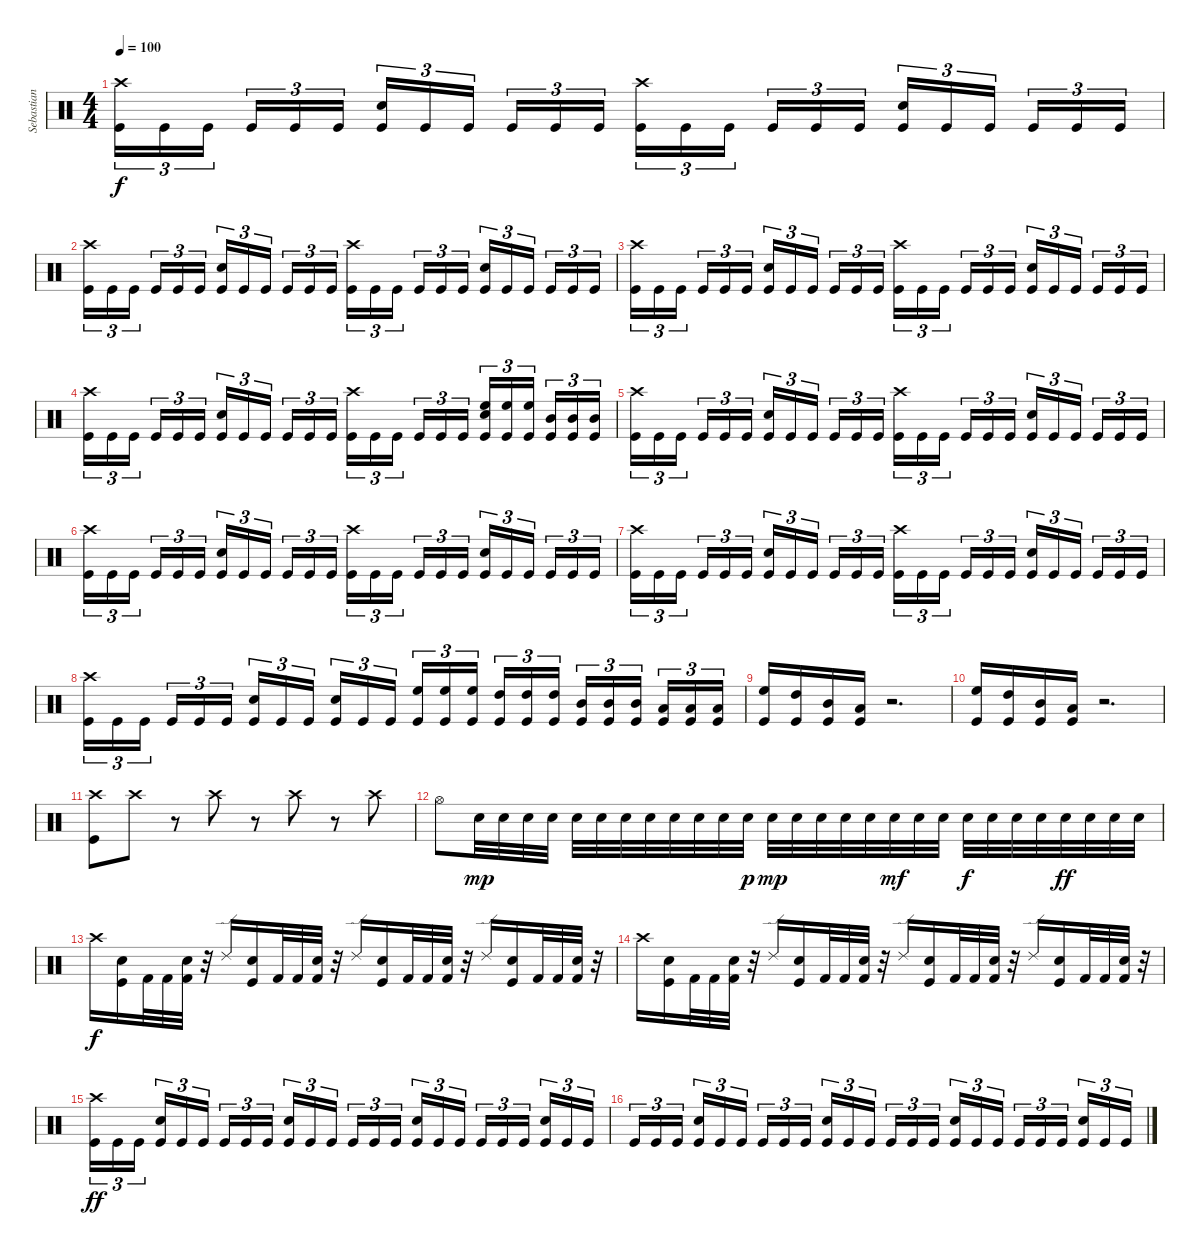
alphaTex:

\track ("Sebastian Heldt" "Sebastian ") {instrument percussion}
\staff {score}
\articulation defaults
\ts (4 4)
\tempo 100
\clef neutral
\ks c
("Kick (hit)" "Crash high (hit)").16{tu (3 2) dy f} "Kick (hit)".16{tu (3 2)} "Kick (hit)".16{tu (3 2) beam splitsecondary} "Kick (hit)".16{tu (3 2)} "Kick (hit)".16{tu (3 2)} "Kick (hit)".16{tu (3 2)} ("Kick (hit)" "Snare (hit) 2").16{tu (3 2)} "Kick (hit)".16{tu (3 2)} "Kick (hit)".16{tu (3 2) beam splitsecondary} "Kick (hit)".16{tu (3 2)} "Kick (hit)".16{tu (3 2)} "Kick (hit)".16{tu (3 2)} ("Kick (hit)" "Crash high (hit)").16{tu (3 2)} "Kick (hit)".16{tu (3 2)} "Kick (hit)".16{tu (3 2) beam splitsecondary} "Kick (hit)".16{tu (3 2)} "Kick (hit)".16{tu (3 2)} "Kick (hit)".16{tu (3 2)} ("Kick (hit)" "Snare (hit) 2").16{tu (3 2)} "Kick (hit)".16{tu (3 2)} "Kick (hit)".16{tu (3 2) beam splitsecondary} "Kick (hit)".16{tu (3 2)} "Kick (hit)".16{tu (3 2)} "Kick (hit)".16{tu (3 2)} |
("Kick (hit)" "Crash high (hit)").16{tu (3 2)} "Kick (hit)".16{tu (3 2)} "Kick (hit)".16{tu (3 2) beam splitsecondary} "Kick (hit)".16{tu (3 2)} "Kick (hit)".16{tu (3 2)} "Kick (hit)".16{tu (3 2)} ("Kick (hit)" "Snare (hit) 2").16{tu (3 2)} "Kick (hit)".16{tu (3 2)} "Kick (hit)".16{tu (3 2) beam splitsecondary} "Kick (hit)".16{tu (3 2)} "Kick (hit)".16{tu (3 2)} "Kick (hit)".16{tu (3 2)} ("Kick (hit)" "Crash high (hit)").16{tu (3 2)} "Kick (hit)".16{tu (3 2)} "Kick (hit)".16{tu (3 2) beam splitsecondary} "Kick (hit)".16{tu (3 2)} "Kick (hit)".16{tu (3 2)} "Kick (hit)".16{tu (3 2)} ("Kick (hit)" "Snare (hit) 2").16{tu (3 2)} "Kick (hit)".16{tu (3 2)} "Kick (hit)".16{tu (3 2) beam splitsecondary} "Kick (hit)".16{tu (3 2)} "Kick (hit)".16{tu (3 2)} "Kick (hit)".16{tu (3 2)} |
("Kick (hit)" "Crash high (hit)").16{tu (3 2)} "Kick (hit)".16{tu (3 2)} "Kick (hit)".16{tu (3 2) beam splitsecondary} "Kick (hit)".16{tu (3 2)} "Kick (hit)".16{tu (3 2)} "Kick (hit)".16{tu (3 2)} ("Kick (hit)" "Snare (hit) 2").16{tu (3 2)} "Kick (hit)".16{tu (3 2)} "Kick (hit)".16{tu (3 2) beam splitsecondary} "Kick (hit)".16{tu (3 2)} "Kick (hit)".16{tu (3 2)} "Kick (hit)".16{tu (3 2)} ("Kick (hit)" "Crash high (hit)").16{tu (3 2)} "Kick (hit)".16{tu (3 2)} "Kick (hit)".16{tu (3 2) beam splitsecondary} "Kick (hit)".16{tu (3 2)} "Kick (hit)".16{tu (3 2)} "Kick (hit)".16{tu (3 2)} ("Kick (hit)" "Snare (hit) 2").16{tu (3 2)} "Kick (hit)".16{tu (3 2)} "Kick (hit)".16{tu (3 2) beam splitsecondary} "Kick (hit)".16{tu (3 2)} "Kick (hit)".16{tu (3 2)} "Kick (hit)".16{tu (3 2)} |
("Kick (hit)" "Crash high (hit)").16{tu (3 2)} "Kick (hit)".16{tu (3 2)} "Kick (hit)".16{tu (3 2) beam splitsecondary} "Kick (hit)".16{tu (3 2)} "Kick (hit)".16{tu (3 2)} "Kick (hit)".16{tu (3 2)} ("Kick (hit)" "Snare (hit) 2").16{tu (3 2)} "Kick (hit)".16{tu (3 2)} "Kick (hit)".16{tu (3 2) beam splitsecondary} "Kick (hit)".16{tu (3 2)} "Kick (hit)".16{tu (3 2)} "Kick (hit)".16{tu (3 2)} ("Kick (hit)" "Crash high (hit)").16{tu (3 2)} "Kick (hit)".16{tu (3 2)} "Kick (hit)".16{tu (3 2) beam splitsecondary} "Kick (hit)".16{tu (3 2)} "Kick (hit)".16{tu (3 2)} "Kick (hit)".16{tu (3 2)} ("Kick (hit)" "Snare (hit) 2" "High Floor Tom (hit)").16{tu (3 2)} ("Kick (hit)" "High Floor Tom (hit)").16{tu (3 2)} ("Kick (hit)" "High Floor Tom (hit)").16{tu (3 2) beam splitsecondary} ("Kick (hit)" "Mid Tom (hit)").16{tu (3 2)} ("Kick (hit)" "Mid Tom (hit)").16{tu (3 2)} ("Kick (hit)" "Mid Tom (hit)").16{tu (3 2)} |
("Kick (hit)" "Crash high (hit)").16{tu (3 2)} "Kick (hit)".16{tu (3 2)} "Kick (hit)".16{tu (3 2) beam splitsecondary} "Kick (hit)".16{tu (3 2)} "Kick (hit)".16{tu (3 2)} "Kick (hit)".16{tu (3 2)} ("Kick (hit)" "Snare (hit) 2").16{tu (3 2)} "Kick (hit)".16{tu (3 2)} "Kick (hit)".16{tu (3 2) beam splitsecondary} "Kick (hit)".16{tu (3 2)} "Kick (hit)".16{tu (3 2)} "Kick (hit)".16{tu (3 2)} ("Kick (hit)" "Crash high (hit)").16{tu (3 2)} "Kick (hit)".16{tu (3 2)} "Kick (hit)".16{tu (3 2) beam splitsecondary} "Kick (hit)".16{tu (3 2)} "Kick (hit)".16{tu (3 2)} "Kick (hit)".16{tu (3 2)} ("Kick (hit)" "Snare (hit) 2").16{tu (3 2)} "Kick (hit)".16{tu (3 2)} "Kick (hit)".16{tu (3 2) beam splitsecondary} "Kick (hit)".16{tu (3 2)} "Kick (hit)".16{tu (3 2)} "Kick (hit)".16{tu (3 2)} |
("Kick (hit)" "Crash high (hit)").16{tu (3 2)} "Kick (hit)".16{tu (3 2)} "Kick (hit)".16{tu (3 2) beam splitsecondary} "Kick (hit)".16{tu (3 2)} "Kick (hit)".16{tu (3 2)} "Kick (hit)".16{tu (3 2)} ("Kick (hit)" "Snare (hit) 2").16{tu (3 2)} "Kick (hit)".16{tu (3 2)} "Kick (hit)".16{tu (3 2) beam splitsecondary} "Kick (hit)".16{tu (3 2)} "Kick (hit)".16{tu (3 2)} "Kick (hit)".16{tu (3 2)} ("Kick (hit)" "Crash high (hit)").16{tu (3 2)} "Kick (hit)".16{tu (3 2)} "Kick (hit)".16{tu (3 2) beam splitsecondary} "Kick (hit)".16{tu (3 2)} "Kick (hit)".16{tu (3 2)} "Kick (hit)".16{tu (3 2)} ("Kick (hit)" "Snare (hit) 2").16{tu (3 2)} "Kick (hit)".16{tu (3 2)} "Kick (hit)".16{tu (3 2) beam splitsecondary} "Kick (hit)".16{tu (3 2)} "Kick (hit)".16{tu (3 2)} "Kick (hit)".16{tu (3 2)} |
("Kick (hit)" "Crash high (hit)").16{tu (3 2)} "Kick (hit)".16{tu (3 2)} "Kick (hit)".16{tu (3 2) beam splitsecondary} "Kick (hit)".16{tu (3 2)} "Kick (hit)".16{tu (3 2)} "Kick (hit)".16{tu (3 2)} ("Kick (hit)" "Snare (hit) 2").16{tu (3 2)} "Kick (hit)".16{tu (3 2)} "Kick (hit)".16{tu (3 2) beam splitsecondary} "Kick (hit)".16{tu (3 2)} "Kick (hit)".16{tu (3 2)} "Kick (hit)".16{tu (3 2)} ("Kick (hit)" "Crash high (hit)").16{tu (3 2)} "Kick (hit)".16{tu (3 2)} "Kick (hit)".16{tu (3 2) beam splitsecondary} "Kick (hit)".16{tu (3 2)} "Kick (hit)".16{tu (3 2)} "Kick (hit)".16{tu (3 2)} ("Kick (hit)" "Snare (hit) 2").16{tu (3 2)} "Kick (hit)".16{tu (3 2)} "Kick (hit)".16{tu (3 2) beam splitsecondary} "Kick (hit)".16{tu (3 2)} "Kick (hit)".16{tu (3 2)} "Kick (hit)".16{tu (3 2)} |
("Kick (hit)" "Crash high (hit)").16{tu (3 2)} "Kick (hit)".16{tu (3 2)} "Kick (hit)".16{tu (3 2) beam splitsecondary} "Kick (hit)".16{tu (3 2)} "Kick (hit)".16{tu (3 2)} "Kick (hit)".16{tu (3 2)} ("Kick (hit)" "Snare (hit) 2").16{tu (3 2)} "Kick (hit)".16{tu (3 2)} "Kick (hit)".16{tu (3 2) beam splitsecondary} ("Kick (hit)" "Snare (hit) 2").16{tu (3 2)} "Kick (hit)".16{tu (3 2)} "Kick (hit)".16{tu (3 2)} ("Kick (hit)" "High Floor Tom (hit)").16{tu (3 2)} ("Kick (hit)" "High Floor Tom (hit)").16{tu (3 2)} ("Kick (hit)" "High Floor Tom (hit)").16{tu (3 2) beam splitsecondary} ("Kick (hit)" "High Tom (hit)").16{tu (3 2)} ("Kick (hit)" "High Tom (hit)").16{tu (3 2)} ("Kick (hit)" "High Tom (hit)").16{tu (3 2)} ("Kick (hit)" "Mid Tom (hit)").16{tu (3 2)} ("Kick (hit)" "Mid Tom (hit)").16{tu (3 2)} ("Kick (hit)" "Mid Tom (hit)").16{tu (3 2) beam splitsecondary} ("Kick (hit)" "Low Tom (hit)").16{tu (3 2)} ("Kick (hit)" "Low Tom (hit)").16{tu (3 2)} ("Kick (hit)" "Low Tom (hit)").16{tu (3 2)} |
("High Floor Tom (hit)" "Kick (hit)").16 ("High Tom (hit)" "Kick (hit)").16 ("Mid Tom (hit)" "Kick (hit)").16 ("Low Tom (hit)" "Kick (hit)").16 r.2{d} |
("High Floor Tom (hit)" "Kick (hit)").16 ("High Tom (hit)" "Kick (hit)").16 ("Mid Tom (hit)" "Kick (hit)").16 ("Low Tom (hit)" "Kick (hit)").16 r.2{d} |
("Crash high (hit)" "Kick (hit)").8 "Crash high (hit)".8 r.8 "Crash high (hit)".8 r.8 "Crash high (hit)".8 r.8 "Crash high (hit)".8 |
"Hi-Hat (open)".8 "Snare (hit) 2".32{dy mp} "Snare (hit) 2".32 "Snare (hit) 2".32 "Snare (hit) 2".32 "Snare (hit) 2".32 "Snare (hit) 2".32 "Snare (hit) 2".32 "Snare (hit) 2".32 "Snare (hit) 2".32 "Snare (hit) 2".32 "Snare (hit) 2".32 "Snare (hit) 2".32{dy p} "Snare (hit) 2".32{dy mp} "Snare (hit) 2".32 "Snare (hit) 2".32 "Snare (hit) 2".32 "Snare (hit) 2".32 "Snare (hit) 2".32{dy mf} "Snare (hit) 2".32 "Snare (hit) 2".32 "Snare (hit) 2".32{dy f} "Snare (hit) 2".32 "Snare (hit) 2".32 "Snare (hit) 2".32 "Snare (hit) 2".32{dy ff} "Snare (hit) 2".32 "Snare (hit) 2".32 "Snare (hit) 2".32 |
"Crash high (hit)".16{dy f} ("Kick (hit)" "Snare (hit) 2").16 "Kick (hit) 2".32 "Kick (hit) 2".32 ("Kick (hit) 2" "Snare (hit) 2").32 r.32 "Ride (edge) 2".16 ("Kick (hit)" "Snare (hit) 2").16 "Kick (hit) 2".32 "Kick (hit) 2".32 ("Kick (hit) 2" "Snare (hit) 2").32 r.32 "Ride (edge) 2".16 ("Kick (hit)" "Snare (hit) 2").16 "Kick (hit) 2".32 "Kick (hit) 2".32 ("Kick (hit) 2" "Snare (hit) 2").32 r.32 "Ride (edge) 2".16 ("Kick (hit)" "Snare (hit) 2").16 "Kick (hit) 2".32 "Kick (hit) 2".32 ("Kick (hit) 2" "Snare (hit) 2").32 r.32 |
"Crash high (hit)".16 ("Kick (hit)" "Snare (hit) 2").16 "Kick (hit) 2".32 "Kick (hit) 2".32 ("Kick (hit) 2" "Snare (hit) 2").32 r.32 "Ride (edge) 2".16 ("Kick (hit)" "Snare (hit) 2").16 "Kick (hit) 2".32 "Kick (hit) 2".32 ("Kick (hit) 2" "Snare (hit) 2").32 r.32 "Ride (edge) 2".16 ("Kick (hit)" "Snare (hit) 2").16 "Kick (hit) 2".32 "Kick (hit) 2".32 ("Kick (hit) 2" "Snare (hit) 2").32 r.32 "Ride (edge) 2".16 ("Kick (hit)" "Snare (hit) 2").16 "Kick (hit) 2".32 "Kick (hit) 2".32 ("Kick (hit) 2" "Snare (hit) 2").32 r.32 |
("Kick (hit)" "Crash high (hit)").16{tu (3 2) dy ff} "Kick (hit)".16{tu (3 2)} "Kick (hit)".16{tu (3 2) beam splitsecondary} ("Kick (hit)" "Snare (hit) 2").16{tu (3 2)} "Kick (hit)".16{tu (3 2)} "Kick (hit)".16{tu (3 2)} "Kick (hit)".16{tu (3 2)} "Kick (hit)".16{tu (3 2)} "Kick (hit)".16{tu (3 2) beam splitsecondary} ("Kick (hit)" "Snare (hit) 2").16{tu (3 2)} "Kick (hit)".16{tu (3 2)} "Kick (hit)".16{tu (3 2)} "Kick (hit)".16{tu (3 2)} "Kick (hit)".16{tu (3 2)} "Kick (hit)".16{tu (3 2) beam splitsecondary} ("Kick (hit)" "Snare (hit) 2").16{tu (3 2)} "Kick (hit)".16{tu (3 2)} "Kick (hit)".16{tu (3 2)} "Kick (hit)".16{tu (3 2)} "Kick (hit)".16{tu (3 2)} "Kick (hit)".16{tu (3 2) beam splitsecondary} ("Kick (hit)" "Snare (hit) 2").16{tu (3 2)} "Kick (hit)".16{tu (3 2)} "Kick (hit)".16{tu (3 2)} |
"Kick (hit)".16{tu (3 2)} "Kick (hit)".16{tu (3 2)} "Kick (hit)".16{tu (3 2) beam splitsecondary} ("Kick (hit)" "Snare (hit) 2").16{tu (3 2)} "Kick (hit)".16{tu (3 2)} "Kick (hit)".16{tu (3 2)} "Kick (hit)".16{tu (3 2)} "Kick (hit)".16{tu (3 2)} "Kick (hit)".16{tu (3 2) beam splitsecondary} ("Kick (hit)" "Snare (hit) 2").16{tu (3 2)} "Kick (hit)".16{tu (3 2)} "Kick (hit)".16{tu (3 2)} "Kick (hit)".16{tu (3 2)} "Kick (hit)".16{tu (3 2)} "Kick (hit)".16{tu (3 2) beam splitsecondary} ("Kick (hit)" "Snare (hit) 2").16{tu (3 2)} "Kick (hit)".16{tu (3 2)} "Kick (hit)".16{tu (3 2)} "Kick (hit)".16{tu (3 2)} "Kick (hit)".16{tu (3 2)} "Kick (hit)".16{tu (3 2) beam splitsecondary} ("Kick (hit)" "Snare (hit) 2").16{tu (3 2)} "Kick (hit)".16{tu (3 2)} "Kick (hit)".16{tu (3 2)}
